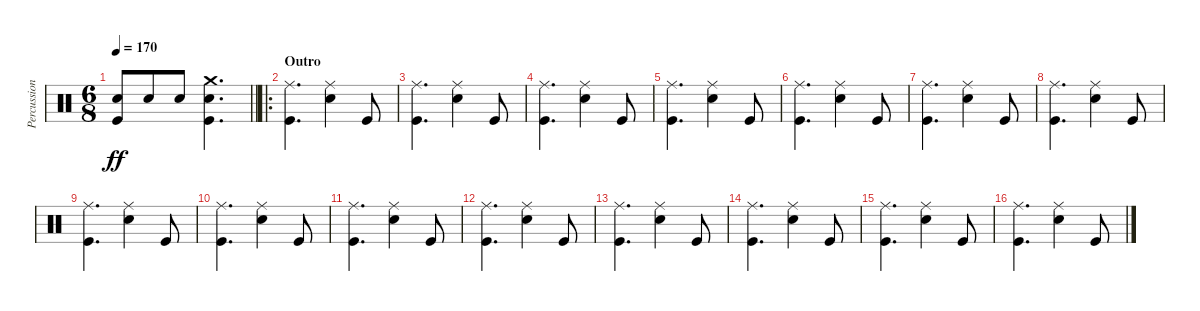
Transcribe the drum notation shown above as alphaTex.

\track ("Percussion" "Percussion") {instrument percussion}
\staff {score}
\articulation defaults
\ts (6 8)
\tempo 170
\clef neutral
\barLineRight lightlight
\ks c
("Snare (hit) 2" "Kick (hit)").8{dy ff} "Snare (hit) 2".8 "Snare (hit) 2".8 ("Crash medium (hit)" "Snare (hit) 2" "Kick (hit)").4{d} |
\ro
\section ("" "Outro")
("Ride (middle)" "Kick (hit)").4{d} ("Ride (middle)" "Snare (hit) 2").4 "Kick (hit)".8 |
("Ride (middle)" "Kick (hit)").4{d} ("Ride (middle)" "Snare (hit) 2").4 "Kick (hit)".8 |
("Ride (middle)" "Kick (hit)").4{d} ("Ride (middle)" "Snare (hit) 2").4 "Kick (hit)".8 |
("Ride (middle)" "Kick (hit)").4{d} ("Ride (middle)" "Snare (hit) 2").4 "Kick (hit)".8 |
("Ride (middle)" "Kick (hit)").4{d} ("Ride (middle)" "Snare (hit) 2").4 "Kick (hit)".8 |
("Ride (middle)" "Kick (hit)").4{d} ("Ride (middle)" "Snare (hit) 2").4 "Kick (hit)".8 |
("Ride (middle)" "Kick (hit)").4{d} ("Ride (middle)" "Snare (hit) 2").4 "Kick (hit)".8 |
("Ride (middle)" "Kick (hit)").4{d} ("Ride (middle)" "Snare (hit) 2").4 "Kick (hit)".8 |
("Ride (middle)" "Kick (hit)").4{d} ("Ride (middle)" "Snare (hit) 2").4 "Kick (hit)".8 |
("Ride (middle)" "Kick (hit)").4{d} ("Ride (middle)" "Snare (hit) 2").4 "Kick (hit)".8 |
("Ride (middle)" "Kick (hit)").4{d} ("Ride (middle)" "Snare (hit) 2").4 "Kick (hit)".8 |
("Ride (middle)" "Kick (hit)").4{d} ("Ride (middle)" "Snare (hit) 2").4 "Kick (hit)".8 |
("Ride (middle)" "Kick (hit)").4{d} ("Ride (middle)" "Snare (hit) 2").4 "Kick (hit)".8 |
("Ride (middle)" "Kick (hit)").4{d} ("Ride (middle)" "Snare (hit) 2").4 "Kick (hit)".8 |
("Ride (middle)" "Kick (hit)").4{d} ("Ride (middle)" "Snare (hit) 2").4 "Kick (hit)".8
